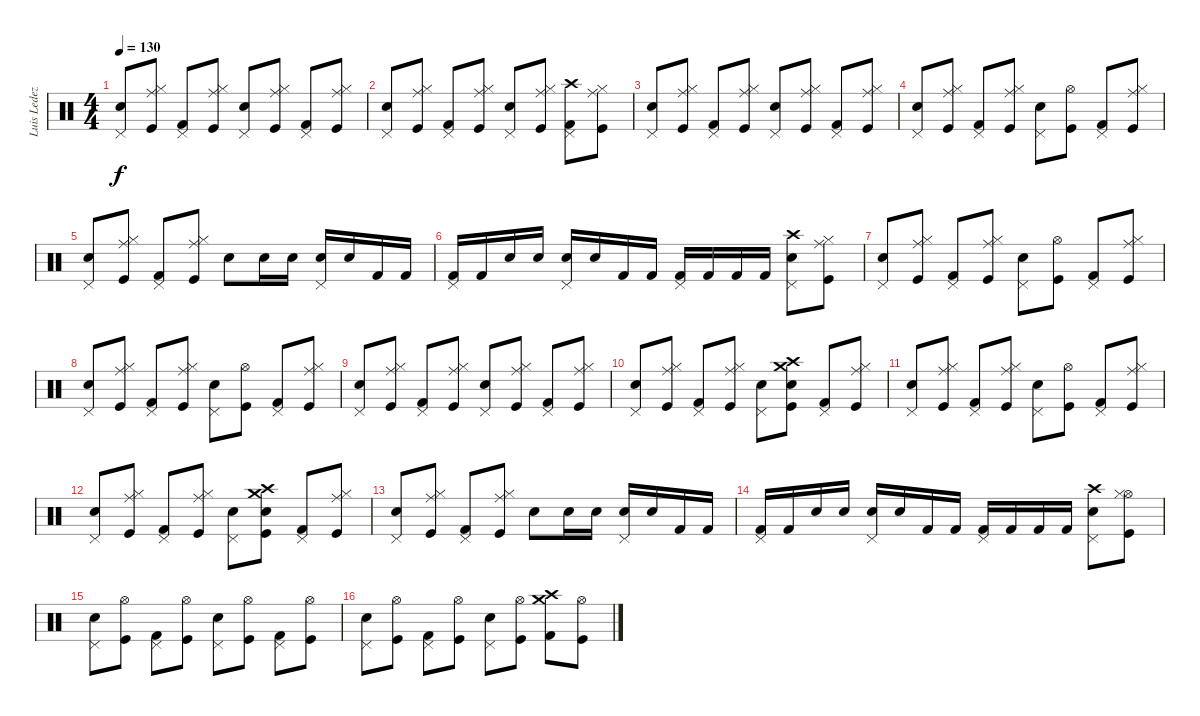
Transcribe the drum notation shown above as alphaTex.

\track ("Luis Ledezma (bateria)" "Luis Ledez") {instrument percussion}
\staff {score}
\articulation defaults
\ts (4 4)
\tempo 130
\clef neutral
\ks c
("Pedal Hi-Hat (hit)" "Snare (hit) 2").8{dy f} ("Ride (middle)" "Hi-Hat (closed)" "Kick (hit)").8 ("Pedal Hi-Hat (hit)" "Kick (hit) 2").8 ("Ride (middle)" "Hi-Hat (closed)" "Kick (hit)").8 ("Pedal Hi-Hat (hit)" "Snare (hit) 2").8 ("Ride (middle)" "Hi-Hat (closed)" "Kick (hit)").8 ("Pedal Hi-Hat (hit)" "Kick (hit) 2").8 ("Ride (middle)" "Hi-Hat (closed)" "Kick (hit)").8 |
("Pedal Hi-Hat (hit)" "Snare (hit) 2").8 ("Ride (middle)" "Hi-Hat (closed)" "Kick (hit)").8 ("Pedal Hi-Hat (hit)" "Kick (hit) 2").8 ("Ride (middle)" "Hi-Hat (closed)" "Kick (hit)").8 ("Pedal Hi-Hat (hit)" "Snare (hit) 2").8 ("Ride (middle)" "Hi-Hat (closed)" "Kick (hit)").8 ("Crash high (hit)" "Pedal Hi-Hat (hit)" "Kick (hit) 2").8 ("Ride (middle)" "Hi-Hat (closed)" "Kick (hit)").8 |
("Pedal Hi-Hat (hit)" "Snare (hit) 2").8 ("Ride (middle)" "Hi-Hat (closed)" "Kick (hit)").8 ("Pedal Hi-Hat (hit)" "Kick (hit) 2").8 ("Ride (middle)" "Hi-Hat (closed)" "Kick (hit)").8 ("Pedal Hi-Hat (hit)" "Snare (hit) 2").8 ("Ride (middle)" "Hi-Hat (closed)" "Kick (hit)").8 ("Pedal Hi-Hat (hit)" "Kick (hit) 2").8 ("Ride (middle)" "Hi-Hat (closed)" "Kick (hit)").8 |
("Pedal Hi-Hat (hit)" "Snare (hit) 2").8 ("Ride (middle)" "Hi-Hat (closed)" "Kick (hit)").8 ("Pedal Hi-Hat (hit)" "Kick (hit) 2").8 ("Ride (middle)" "Hi-Hat (closed)" "Kick (hit)").8 ("Pedal Hi-Hat (hit)" "Snare (hit) 2").8 ("Hi-Hat (open)" "Kick (hit)").8 ("Pedal Hi-Hat (hit)" "Kick (hit) 2").8 ("Ride (middle)" "Hi-Hat (closed)" "Kick (hit)").8 |
("Pedal Hi-Hat (hit)" "Snare (hit) 2").8 ("Ride (middle)" "Hi-Hat (closed)" "Kick (hit)").8 ("Pedal Hi-Hat (hit)" "Kick (hit) 2").8 ("Ride (middle)" "Hi-Hat (closed)" "Kick (hit)").8 "Snare (hit) 2".8 "Snare (hit) 2".16 "Snare (hit) 2".16 ("Pedal Hi-Hat (hit)" "Snare (hit) 2").16 "Snare (hit) 2".16 "Kick (hit) 2".16 "Kick (hit) 2".16 |
("Pedal Hi-Hat (hit)" "Kick (hit) 2").16 "Kick (hit) 2".16 "Snare (hit) 2".16 "Snare (hit) 2".16 ("Pedal Hi-Hat (hit)" "Snare (hit) 2").16 "Snare (hit) 2".16 "Kick (hit) 2".16 "Kick (hit) 2".16 ("Pedal Hi-Hat (hit)" "Kick (hit) 2").16 "Kick (hit) 2".16 "Kick (hit) 2".16 "Kick (hit) 2".16 ("Crash high (hit)" "Pedal Hi-Hat (hit)" "Snare (hit) 2").8 ("Ride (middle)" "Hi-Hat (closed)" "Kick (hit)").8 |
("Pedal Hi-Hat (hit)" "Snare (hit) 2").8 ("Ride (middle)" "Hi-Hat (closed)" "Kick (hit)").8 ("Pedal Hi-Hat (hit)" "Kick (hit) 2").8 ("Ride (middle)" "Hi-Hat (closed)" "Kick (hit)").8 ("Pedal Hi-Hat (hit)" "Snare (hit) 2").8 ("Hi-Hat (open)" "Kick (hit)").8 ("Pedal Hi-Hat (hit)" "Kick (hit) 2").8 ("Ride (middle)" "Hi-Hat (closed)" "Kick (hit)").8 |
("Pedal Hi-Hat (hit)" "Snare (hit) 2").8 ("Ride (middle)" "Hi-Hat (closed)" "Kick (hit)").8 ("Pedal Hi-Hat (hit)" "Kick (hit) 2").8 ("Ride (middle)" "Hi-Hat (closed)" "Kick (hit)").8 ("Pedal Hi-Hat (hit)" "Snare (hit) 2").8 ("Hi-Hat (open)" "Kick (hit)").8 ("Pedal Hi-Hat (hit)" "Kick (hit) 2").8 ("Ride (middle)" "Hi-Hat (closed)" "Kick (hit)").8 |
("Pedal Hi-Hat (hit)" "Snare (hit) 2").8 ("Ride (middle)" "Hi-Hat (closed)" "Kick (hit)").8 ("Pedal Hi-Hat (hit)" "Kick (hit) 2").8 ("Ride (middle)" "Hi-Hat (closed)" "Kick (hit)").8 ("Pedal Hi-Hat (hit)" "Snare (hit) 2").8 ("Ride (middle)" "Hi-Hat (closed)" "Kick (hit)").8 ("Pedal Hi-Hat (hit)" "Kick (hit) 2").8 ("Ride (middle)" "Hi-Hat (closed)" "Kick (hit)").8 |
("Pedal Hi-Hat (hit)" "Snare (hit) 2").8 ("Ride (middle)" "Hi-Hat (closed)" "Kick (hit)").8 ("Pedal Hi-Hat (hit)" "Kick (hit) 2").8 ("Ride (middle)" "Hi-Hat (closed)" "Kick (hit)").8 ("Pedal Hi-Hat (hit)" "Snare (hit) 2").8 ("Crash medium (hit)" "Crash high (hit)" "Snare (hit) 2" "Kick (hit)").8 ("Pedal Hi-Hat (hit)" "Kick (hit) 2").8 ("Ride (middle)" "Hi-Hat (closed)" "Kick (hit)").8 |
("Pedal Hi-Hat (hit)" "Snare (hit) 2").8 ("Ride (middle)" "Hi-Hat (closed)" "Kick (hit)").8 ("Pedal Hi-Hat (hit)" "Kick (hit) 2").8 ("Ride (middle)" "Hi-Hat (closed)" "Kick (hit)").8 ("Pedal Hi-Hat (hit)" "Snare (hit) 2").8 ("Hi-Hat (open)" "Kick (hit)").8 ("Pedal Hi-Hat (hit)" "Kick (hit) 2").8 ("Ride (middle)" "Hi-Hat (closed)" "Kick (hit)").8 |
("Pedal Hi-Hat (hit)" "Snare (hit) 2").8 ("Ride (middle)" "Hi-Hat (closed)" "Kick (hit)").8 ("Pedal Hi-Hat (hit)" "Kick (hit) 2").8 ("Ride (middle)" "Hi-Hat (closed)" "Kick (hit)").8 ("Pedal Hi-Hat (hit)" "Snare (hit) 2").8 ("Crash medium (hit)" "Crash high (hit)" "Snare (hit) 2" "Kick (hit)").8 ("Pedal Hi-Hat (hit)" "Kick (hit) 2").8 ("Ride (middle)" "Hi-Hat (closed)" "Kick (hit)").8 |
("Pedal Hi-Hat (hit)" "Snare (hit) 2").8 ("Ride (middle)" "Hi-Hat (closed)" "Kick (hit)").8 ("Pedal Hi-Hat (hit)" "Kick (hit) 2").8 ("Ride (middle)" "Hi-Hat (closed)" "Kick (hit)").8 "Snare (hit) 2".8 "Snare (hit) 2".16 "Snare (hit) 2".16 ("Pedal Hi-Hat (hit)" "Snare (hit) 2").16 "Snare (hit) 2".16 "Kick (hit) 2".16 "Kick (hit) 2".16 |
("Pedal Hi-Hat (hit)" "Kick (hit) 2").16 "Kick (hit) 2".16 "Snare (hit) 2".16 "Snare (hit) 2".16 ("Pedal Hi-Hat (hit)" "Snare (hit) 2").16 "Snare (hit) 2".16 "Kick (hit) 2".16 "Kick (hit) 2".16 ("Pedal Hi-Hat (hit)" "Kick (hit) 2").16 "Kick (hit) 2".16 "Kick (hit) 2".16 "Kick (hit) 2".16 ("Crash high (hit)" "Pedal Hi-Hat (hit)" "Snare (hit) 2").8 ("Hi-Hat (open)" "Hi-Hat (closed)" "Kick (hit)").8 |
("Pedal Hi-Hat (hit)" "Snare (hit) 2").8 ("Hi-Hat (open)" "Kick (hit)").8 ("Pedal Hi-Hat (hit)" "Kick (hit) 2").8 ("Hi-Hat (open)" "Kick (hit)").8 ("Pedal Hi-Hat (hit)" "Snare (hit) 2").8 ("Hi-Hat (open)" "Kick (hit)").8 ("Pedal Hi-Hat (hit)" "Kick (hit) 2").8 ("Hi-Hat (open)" "Kick (hit)").8 |
("Pedal Hi-Hat (hit)" "Snare (hit) 2").8 ("Hi-Hat (open)" "Kick (hit)").8 ("Pedal Hi-Hat (hit)" "Kick (hit) 2").8 ("Hi-Hat (open)" "Kick (hit)").8 ("Pedal Hi-Hat (hit)" "Snare (hit) 2").8 ("Hi-Hat (open)" "Kick (hit)").8 ("Crash high (hit)" "Crash medium (hit)" "Kick (hit) 2").8 ("Hi-Hat (open)" "Kick (hit)").8
